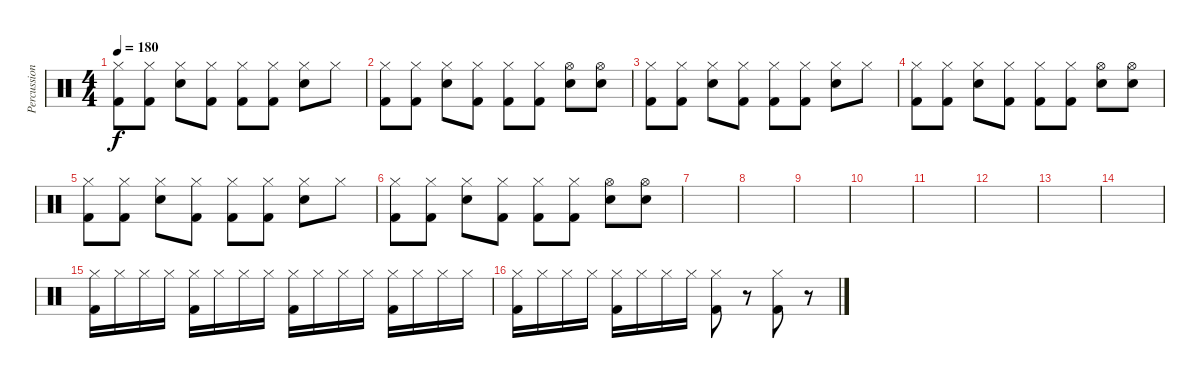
\track ("Percussion" "Percussion") {instrument percussion}
\staff {score}
\articulation defaults
\ts (4 4)
\tempo 180
\clef neutral
\ks c
("Hi-Hat (closed)" "Kick (hit) 2").8{dy f} ("Hi-Hat (closed)" "Kick (hit) 2").8 ("Hi-Hat (closed)" "Electric Snare (hit)").8 ("Hi-Hat (closed)" "Kick (hit) 2").8 ("Hi-Hat (closed)" "Kick (hit) 2").8 ("Hi-Hat (closed)" "Kick (hit) 2").8 ("Hi-Hat (closed)" "Electric Snare (hit)").8 "Hi-Hat (closed)".8 |
("Hi-Hat (closed)" "Kick (hit) 2").8 ("Hi-Hat (closed)" "Kick (hit) 2").8 ("Hi-Hat (closed)" "Electric Snare (hit)").8 ("Hi-Hat (closed)" "Kick (hit) 2").8 ("Hi-Hat (closed)" "Kick (hit) 2").8 ("Hi-Hat (closed)" "Kick (hit) 2").8 ("Hi-Hat (open)" "Electric Snare (hit)").8 ("Hi-Hat (open)" "Electric Snare (hit)").8 |
("Hi-Hat (closed)" "Kick (hit) 2").8 ("Hi-Hat (closed)" "Kick (hit) 2").8 ("Hi-Hat (closed)" "Electric Snare (hit)").8 ("Hi-Hat (closed)" "Kick (hit) 2").8 ("Hi-Hat (closed)" "Kick (hit) 2").8 ("Hi-Hat (closed)" "Kick (hit) 2").8 ("Hi-Hat (closed)" "Electric Snare (hit)").8 "Hi-Hat (closed)".8 |
("Hi-Hat (closed)" "Kick (hit) 2").8 ("Hi-Hat (closed)" "Kick (hit) 2").8 ("Hi-Hat (closed)" "Electric Snare (hit)").8 ("Hi-Hat (closed)" "Kick (hit) 2").8 ("Hi-Hat (closed)" "Kick (hit) 2").8 ("Hi-Hat (closed)" "Kick (hit) 2").8 ("Hi-Hat (open)" "Electric Snare (hit)").8 ("Hi-Hat (open)" "Electric Snare (hit)").8 |
("Hi-Hat (closed)" "Kick (hit) 2").8 ("Hi-Hat (closed)" "Kick (hit) 2").8 ("Hi-Hat (closed)" "Electric Snare (hit)").8 ("Hi-Hat (closed)" "Kick (hit) 2").8 ("Hi-Hat (closed)" "Kick (hit) 2").8 ("Hi-Hat (closed)" "Kick (hit) 2").8 ("Hi-Hat (closed)" "Electric Snare (hit)").8 "Hi-Hat (closed)".8 |
("Hi-Hat (closed)" "Kick (hit) 2").8 ("Hi-Hat (closed)" "Kick (hit) 2").8 ("Hi-Hat (closed)" "Electric Snare (hit)").8 ("Hi-Hat (closed)" "Kick (hit) 2").8 ("Hi-Hat (closed)" "Kick (hit) 2").8 ("Hi-Hat (closed)" "Kick (hit) 2").8 ("Hi-Hat (open)" "Electric Snare (hit)").8 ("Hi-Hat (open)" "Electric Snare (hit)").8 |
|
|
|
|
|
|
|
|
("Hi-Hat (closed)" "Kick (hit) 2").16 "Hi-Hat (closed)".16 "Hi-Hat (closed)".16 "Hi-Hat (closed)".16 ("Hi-Hat (closed)" "Kick (hit) 2").16 "Hi-Hat (closed)".16 "Hi-Hat (closed)".16 "Hi-Hat (closed)".16 ("Hi-Hat (closed)" "Kick (hit) 2").16 "Hi-Hat (closed)".16 "Hi-Hat (closed)".16 "Hi-Hat (closed)".16 ("Hi-Hat (closed)" "Kick (hit) 2").16 "Hi-Hat (closed)".16 "Hi-Hat (closed)".16 "Hi-Hat (closed)".16 |
("Hi-Hat (closed)" "Kick (hit) 2").16 "Hi-Hat (closed)".16 "Hi-Hat (closed)".16 "Hi-Hat (closed)".16 ("Hi-Hat (closed)" "Kick (hit) 2").16 "Hi-Hat (closed)".16 "Hi-Hat (closed)".16 "Hi-Hat (closed)".16 ("Hi-Hat (closed)" "Kick (hit) 2").8 r.8 ("Hi-Hat (closed)" "Kick (hit) 2").8 r.8
